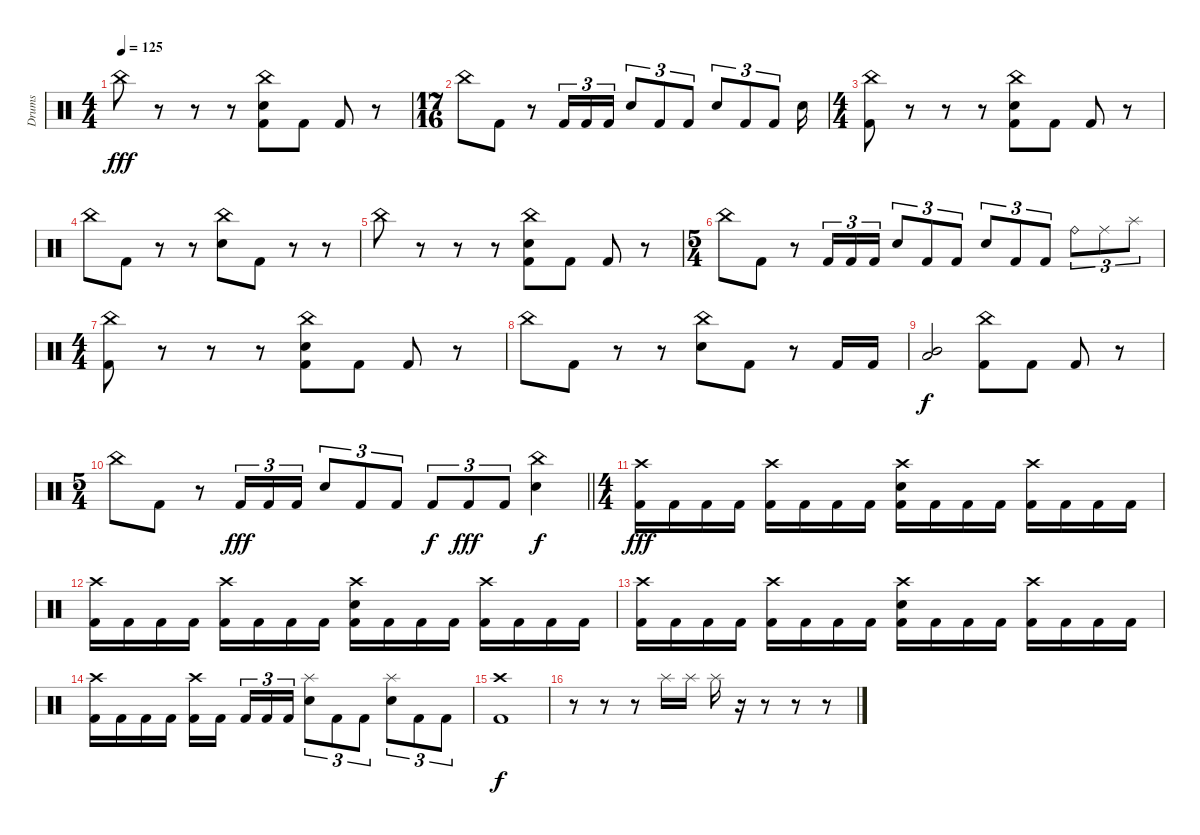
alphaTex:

\track ("Drums" "Drums") {instrument percussion}
\staff {score}
\articulation defaults
\ts (4 4)
\tempo 125
\clef neutral
\ks c "China (hit)".8{dy fff}
r.8 r.8 r.8 ("China (hit)" "Electric Snare (hit)" "Kick (hit) 2").8 "Kick (hit) 2".8 "Kick (hit) 2".8 r.8 |
\ts (17 16)
"China (hit)".8 "Kick (hit) 2".8 r.8 "Kick (hit) 2".16{tu (3 2)} "Kick (hit) 2".16{tu (3 2)} "Kick (hit) 2".16{tu (3 2)} "Electric Snare (hit)".8{tu (3 2)} "Kick (hit) 2".8{tu (3 2)} "Kick (hit) 2".8{tu (3 2)} "Electric Snare (hit)".8{tu (3 2)} "Kick (hit) 2".8{tu (3 2)} "Kick (hit) 2".8{tu (3 2)} "Electric Snare (hit)".16 |
\ts (4 4)
("China (hit)" "Kick (hit) 2").8 r.8 r.8 r.8 ("China (hit)" "Electric Snare (hit)" "Kick (hit) 2").8 "Kick (hit) 2".8 "Kick (hit) 2".8 r.8 |
"China (hit)".8 "Kick (hit) 2".8 r.8 r.8 ("China (hit)" "Electric Snare (hit)").8 "Kick (hit) 2".8 r.8 r.8 |
"China (hit)".8 r.8 r.8 r.8 ("China (hit)" "Electric Snare (hit)" "Kick (hit) 2").8 "Kick (hit) 2".8 "Kick (hit) 2".8 r.8 |
\ts (5 4)
"China (hit)".8 "Kick (hit) 2".8 r.8 "Kick (hit) 2".16{tu (3 2)} "Kick (hit) 2".16{tu (3 2)} "Kick (hit) 2".16{tu (3 2)} "Electric Snare (hit)".8{tu (3 2)} "Kick (hit) 2".8{tu (3 2)} "Kick (hit) 2".8{tu (3 2)} "Electric Snare (hit)".8{tu (3 2)} "Kick (hit) 2".8{tu (3 2)} "Kick (hit) 2".8{tu (3 2)} "Ride (bell)".8{tu (3 2)} "Ride (middle)".8{tu (3 2)} "Splash (hit)".8{tu (3 2)} |
\ts (4 4)
("China (hit)" "Kick (hit) 2").8 r.8 r.8 r.8 ("China (hit)" "Electric Snare (hit)" "Kick (hit) 2").8 "Kick (hit) 2".8 "Kick (hit) 2".8 r.8 |
"China (hit)".8 "Kick (hit) 2".8 r.8 r.8 ("China (hit)" "Electric Snare (hit)").8 "Kick (hit) 2".8 r.8 "Kick (hit) 2".16 "Kick (hit) 2".16 |
("Low Tom (hit)" "Mid Tom (hit)").2{dy f} ("China (hit)" "Kick (hit) 2").8 "Kick (hit) 2".8 "Kick (hit) 2".8 r.8 |
\ts (5 4)
\barLineRight lightlight "China (hit)".8 "Kick (hit) 2".8
r.8 "Kick (hit) 2".16{tu (3 2) dy fff} "Kick (hit) 2".16{tu (3 2)} "Kick (hit) 2".16{tu (3 2)} "Electric Snare (hit)".8{tu (3 2)} "Kick (hit) 2".8{tu (3 2)} "Kick (hit) 2".8{tu (3 2)} "Kick (hit) 2".8{tu (3 2) dy f} "Kick (hit) 2".8{tu (3 2) dy fff} "Kick (hit) 2".8{tu (3 2)} ("China (hit)" "Electric Snare (hit)").4{dy f} |
\ts (4 4)
\section ("" "")
("Crash high (hit)" "Kick (hit) 2").16{dy fff} "Kick (hit) 2".16 "Kick (hit) 2".16 "Kick (hit) 2".16 ("Crash high (hit)" "Kick (hit) 2").16 "Kick (hit) 2".16 "Kick (hit) 2".16 "Kick (hit) 2".16 ("Crash high (hit)" "Electric Snare (hit)" "Kick (hit) 2").16 "Kick (hit) 2".16 "Kick (hit) 2".16 "Kick (hit) 2".16 ("Crash high (hit)" "Kick (hit) 2").16 "Kick (hit) 2".16 "Kick (hit) 2".16 "Kick (hit) 2".16 |
("Crash high (hit)" "Kick (hit) 2").16 "Kick (hit) 2".16 "Kick (hit) 2".16 "Kick (hit) 2".16 ("Crash high (hit)" "Kick (hit) 2").16 "Kick (hit) 2".16 "Kick (hit) 2".16 "Kick (hit) 2".16 ("Crash high (hit)" "Electric Snare (hit)" "Kick (hit) 2").16 "Kick (hit) 2".16 "Kick (hit) 2".16 "Kick (hit) 2".16 ("Crash high (hit)" "Kick (hit) 2").16 "Kick (hit) 2".16 "Kick (hit) 2".16 "Kick (hit) 2".16 |
("Crash high (hit)" "Kick (hit) 2").16 "Kick (hit) 2".16 "Kick (hit) 2".16 "Kick (hit) 2".16 ("Crash high (hit)" "Kick (hit) 2").16 "Kick (hit) 2".16 "Kick (hit) 2".16 "Kick (hit) 2".16 ("Crash high (hit)" "Electric Snare (hit)" "Kick (hit) 2").16 "Kick (hit) 2".16 "Kick (hit) 2".16 "Kick (hit) 2".16 ("Crash high (hit)" "Kick (hit) 2").16 "Kick (hit) 2".16 "Kick (hit) 2".16 "Kick (hit) 2".16 |
("Crash high (hit)" "Kick (hit) 2").16 "Kick (hit) 2".16 "Kick (hit) 2".16 "Kick (hit) 2".16 ("Crash high (hit)" "Kick (hit) 2").16 "Kick (hit) 2".16{beam splitsecondary} "Kick (hit) 2".16{tu (3 2)} "Kick (hit) 2".16{tu (3 2)} "Kick (hit) 2".16{tu (3 2)} ("Splash (hit)" "Electric Snare (hit)").8{tu (3 2)} "Kick (hit) 2".8{tu (3 2)} "Kick (hit) 2".8{tu (3 2)} ("Splash (hit)" "Electric Snare (hit)").8{tu (3 2)} "Kick (hit) 2".8{tu (3 2)} "Kick (hit) 2".8{tu (3 2)} |
("Crash high (hit)" "Kick (hit) 2").1{dy f} |
r.8 r.8 r.8 "Splash (hit)".16 "Splash (hit)".16 "Splash (hit)".16 r.16 r.8 r.8 r.8
